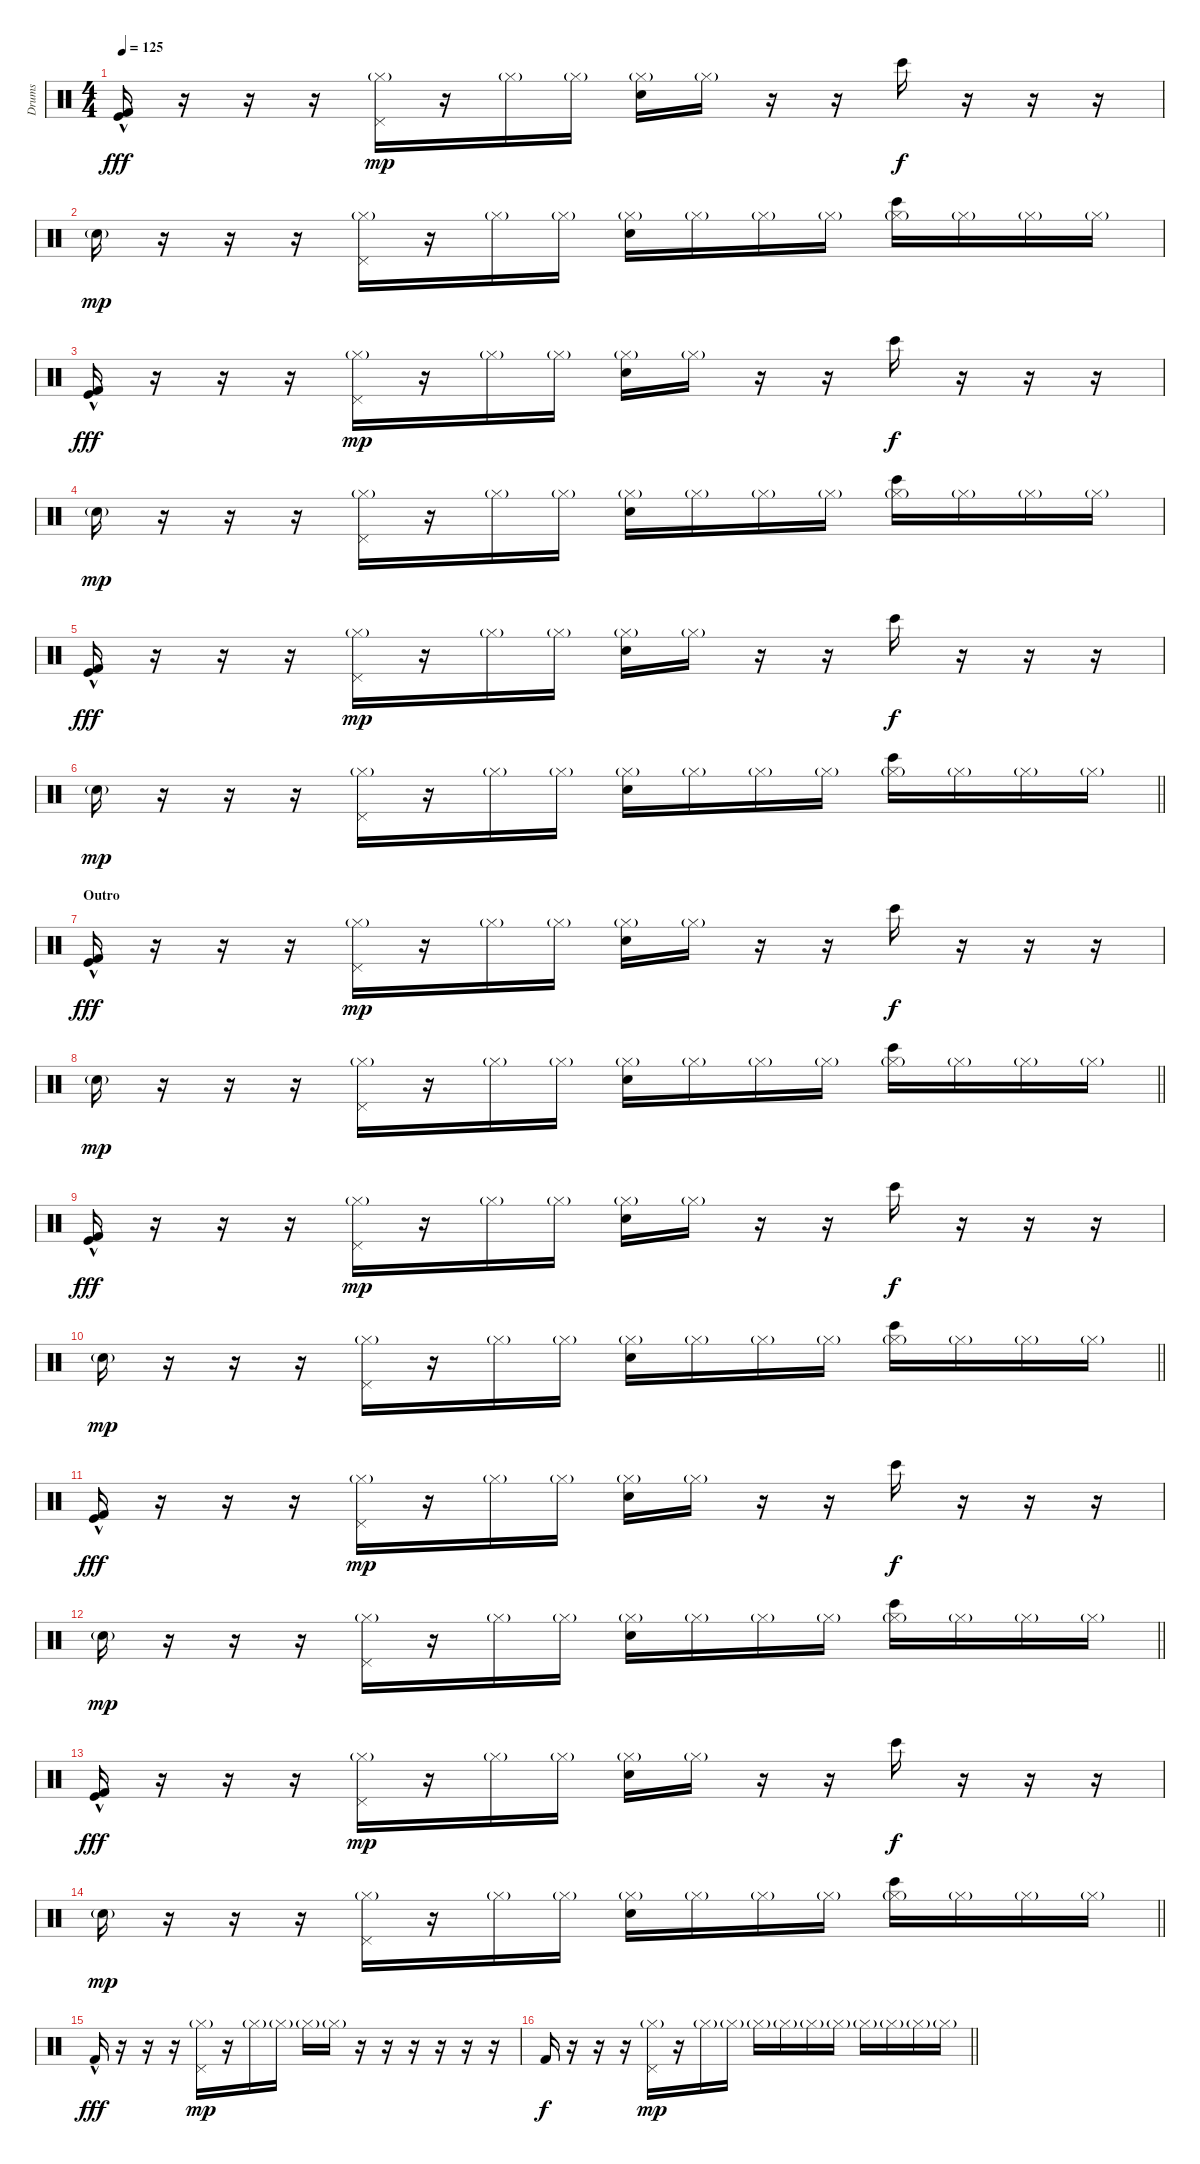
\track ("Drums" "Drums") {instrument percussion}
\staff {score}
\articulation defaults
\ts (4 4)
\tempo 125
\clef neutral
\ks c
("Kick (hit)"{hac} "Kick (hit) 2"{hac}).16{dy fff volume 16} r.16{volume 10} r.16 r.16 ("Hi-Hat (closed)"{g} "Pedal Hi-Hat (hit)").16{dy mp} r.16 "Hi-Hat (closed)"{g}.16 "Hi-Hat (closed)"{g}.16 ("Hi-Hat (closed)"{g} "Hand Clap (hit)").16 "Hi-Hat (closed)"{g}.16 r.16 r.16 "Bongo High (hit)".16{dy f} r.16 r.16 r.16 |
"Electric Snare (hit)"{g}.16{dy mp} r.16 r.16 r.16 ("Hi-Hat (closed)"{g} "Pedal Hi-Hat (hit)").16 r.16 "Hi-Hat (closed)"{g}.16 "Hi-Hat (closed)"{g}.16 ("Hi-Hat (closed)"{g} "Hand Clap (hit)").16 "Hi-Hat (closed)"{g}.16 "Hi-Hat (closed)"{g}.16 "Hi-Hat (closed)"{g}.16 ("Hi-Hat (closed)"{g} "Bongo High (hit)").16 "Hi-Hat (closed)"{g}.16 "Hi-Hat (closed)"{g}.16 "Hi-Hat (closed)"{g}.16 |
("Kick (hit)"{hac} "Kick (hit) 2"{hac}).16{dy fff volume 16} r.16{volume 10} r.16 r.16 ("Hi-Hat (closed)"{g} "Pedal Hi-Hat (hit)").16{dy mp} r.16 "Hi-Hat (closed)"{g}.16 "Hi-Hat (closed)"{g}.16 ("Hi-Hat (closed)"{g} "Hand Clap (hit)").16 "Hi-Hat (closed)"{g}.16 r.16 r.16 "Bongo High (hit)".16{dy f} r.16 r.16 r.16 |
"Electric Snare (hit)"{g}.16{dy mp} r.16 r.16 r.16 ("Hi-Hat (closed)"{g} "Pedal Hi-Hat (hit)").16 r.16 "Hi-Hat (closed)"{g}.16 "Hi-Hat (closed)"{g}.16 ("Hi-Hat (closed)"{g} "Hand Clap (hit)").16 "Hi-Hat (closed)"{g}.16 "Hi-Hat (closed)"{g}.16 "Hi-Hat (closed)"{g}.16 ("Hi-Hat (closed)"{g} "Bongo High (hit)").16 "Hi-Hat (closed)"{g}.16 "Hi-Hat (closed)"{g}.16 "Hi-Hat (closed)"{g}.16 |
("Kick (hit)"{hac} "Kick (hit) 2"{hac}).16{dy fff volume 16} r.16{volume 10} r.16 r.16 ("Hi-Hat (closed)"{g} "Pedal Hi-Hat (hit)").16{dy mp} r.16 "Hi-Hat (closed)"{g}.16 "Hi-Hat (closed)"{g}.16 ("Hi-Hat (closed)"{g} "Hand Clap (hit)").16 "Hi-Hat (closed)"{g}.16 r.16 r.16 "Bongo High (hit)".16{dy f} r.16 r.16 r.16 |
\barLineRight lightlight "Electric Snare (hit)"{g}.16{dy mp}
r.16 r.16 r.16 ("Hi-Hat (closed)"{g} "Pedal Hi-Hat (hit)").16 r.16 "Hi-Hat (closed)"{g}.16 "Hi-Hat (closed)"{g}.16 ("Hi-Hat (closed)"{g} "Hand Clap (hit)").16 "Hi-Hat (closed)"{g}.16 "Hi-Hat (closed)"{g}.16 "Hi-Hat (closed)"{g}.16 ("Hi-Hat (closed)"{g} "Bongo High (hit)").16 "Hi-Hat (closed)"{g}.16 "Hi-Hat (closed)"{g}.16 "Hi-Hat (closed)"{g}.16 |
\section ("" "Outro")
("Kick (hit)"{hac} "Kick (hit) 2"{hac}).16{dy fff volume 16} r.16{volume 10} r.16 r.16 ("Hi-Hat (closed)"{g} "Pedal Hi-Hat (hit)").16{dy mp} r.16 "Hi-Hat (closed)"{g}.16 "Hi-Hat (closed)"{g}.16 ("Hi-Hat (closed)"{g} "Hand Clap (hit)").16 "Hi-Hat (closed)"{g}.16 r.16 r.16 "Bongo High (hit)".16{dy f} r.16 r.16 r.16 |
\barLineRight lightlight "Electric Snare (hit)"{g}.16{dy mp}
r.16 r.16 r.16 ("Hi-Hat (closed)"{g} "Pedal Hi-Hat (hit)").16 r.16 "Hi-Hat (closed)"{g}.16 "Hi-Hat (closed)"{g}.16 ("Hi-Hat (closed)"{g} "Hand Clap (hit)").16 "Hi-Hat (closed)"{g}.16 "Hi-Hat (closed)"{g}.16 "Hi-Hat (closed)"{g}.16 ("Hi-Hat (closed)"{g} "Bongo High (hit)").16 "Hi-Hat (closed)"{g}.16 "Hi-Hat (closed)"{g}.16 "Hi-Hat (closed)"{g}.16 |
("Kick (hit)"{hac} "Kick (hit) 2"{hac}).16{dy fff volume 16} r.16{volume 10} r.16 r.16 ("Hi-Hat (closed)"{g} "Pedal Hi-Hat (hit)").16{dy mp} r.16 "Hi-Hat (closed)"{g}.16 "Hi-Hat (closed)"{g}.16 ("Hi-Hat (closed)"{g} "Hand Clap (hit)").16 "Hi-Hat (closed)"{g}.16 r.16 r.16 "Bongo High (hit)".16{dy f} r.16 r.16 r.16 |
\barLineRight lightlight "Electric Snare (hit)"{g}.16{dy mp}
r.16 r.16 r.16 ("Hi-Hat (closed)"{g} "Pedal Hi-Hat (hit)").16 r.16 "Hi-Hat (closed)"{g}.16 "Hi-Hat (closed)"{g}.16 ("Hi-Hat (closed)"{g} "Hand Clap (hit)").16 "Hi-Hat (closed)"{g}.16 "Hi-Hat (closed)"{g}.16 "Hi-Hat (closed)"{g}.16 ("Hi-Hat (closed)"{g} "Bongo High (hit)").16 "Hi-Hat (closed)"{g}.16 "Hi-Hat (closed)"{g}.16 "Hi-Hat (closed)"{g}.16 |
("Kick (hit)"{hac} "Kick (hit) 2"{hac}).16{dy fff volume 16} r.16{volume 10} r.16 r.16 ("Hi-Hat (closed)"{g} "Pedal Hi-Hat (hit)").16{dy mp} r.16 "Hi-Hat (closed)"{g}.16 "Hi-Hat (closed)"{g}.16 ("Hi-Hat (closed)"{g} "Hand Clap (hit)").16 "Hi-Hat (closed)"{g}.16 r.16 r.16 "Bongo High (hit)".16{dy f} r.16 r.16 r.16 |
\barLineRight lightlight "Electric Snare (hit)"{g}.16{dy mp}
r.16 r.16 r.16 ("Hi-Hat (closed)"{g} "Pedal Hi-Hat (hit)").16 r.16 "Hi-Hat (closed)"{g}.16 "Hi-Hat (closed)"{g}.16 ("Hi-Hat (closed)"{g} "Hand Clap (hit)").16 "Hi-Hat (closed)"{g}.16 "Hi-Hat (closed)"{g}.16 "Hi-Hat (closed)"{g}.16 ("Hi-Hat (closed)"{g} "Bongo High (hit)").16 "Hi-Hat (closed)"{g}.16 "Hi-Hat (closed)"{g}.16 "Hi-Hat (closed)"{g}.16 |
("Kick (hit)"{hac} "Kick (hit) 2"{hac}).16{dy fff volume 16} r.16{volume 10} r.16 r.16 ("Hi-Hat (closed)"{g} "Pedal Hi-Hat (hit)").16{dy mp} r.16 "Hi-Hat (closed)"{g}.16 "Hi-Hat (closed)"{g}.16 ("Hi-Hat (closed)"{g} "Hand Clap (hit)").16 "Hi-Hat (closed)"{g}.16 r.16 r.16 "Bongo High (hit)".16{dy f} r.16 r.16 r.16 |
\barLineRight lightlight "Electric Snare (hit)"{g}.16{dy mp}
r.16 r.16 r.16 ("Hi-Hat (closed)"{g} "Pedal Hi-Hat (hit)").16 r.16 "Hi-Hat (closed)"{g}.16 "Hi-Hat (closed)"{g}.16 ("Hi-Hat (closed)"{g} "Hand Clap (hit)").16 "Hi-Hat (closed)"{g}.16 "Hi-Hat (closed)"{g}.16 "Hi-Hat (closed)"{g}.16 ("Hi-Hat (closed)"{g} "Bongo High (hit)").16 "Hi-Hat (closed)"{g}.16 "Hi-Hat (closed)"{g}.16 "Hi-Hat (closed)"{g}.16 |
"Kick (hit) 2"{hac}.16{dy fff volume 16} r.16{volume 10} r.16 r.16 ("Hi-Hat (closed)"{g} "Pedal Hi-Hat (hit)").16{dy mp} r.16 "Hi-Hat (closed)"{g}.16 "Hi-Hat (closed)"{g}.16 "Hi-Hat (closed)"{g}.16 "Hi-Hat (closed)"{g}.16 r.16 r.16 r.16 r.16 r.16 r.16 |
\barLineRight lightlight "Kick (hit) 2".16{dy f volume 8}
r.16 r.16 r.16 ("Hi-Hat (closed)"{g} "Pedal Hi-Hat (hit)").16{dy mp} r.16 "Hi-Hat (closed)"{g}.16 "Hi-Hat (closed)"{g}.16 "Hi-Hat (closed)"{g}.16 "Hi-Hat (closed)"{g}.16 "Hi-Hat (closed)"{g}.16 "Hi-Hat (closed)"{g}.16 "Hi-Hat (closed)"{g}.16 "Hi-Hat (closed)"{g}.16 "Hi-Hat (closed)"{g}.16 "Hi-Hat (closed)"{g}.16
